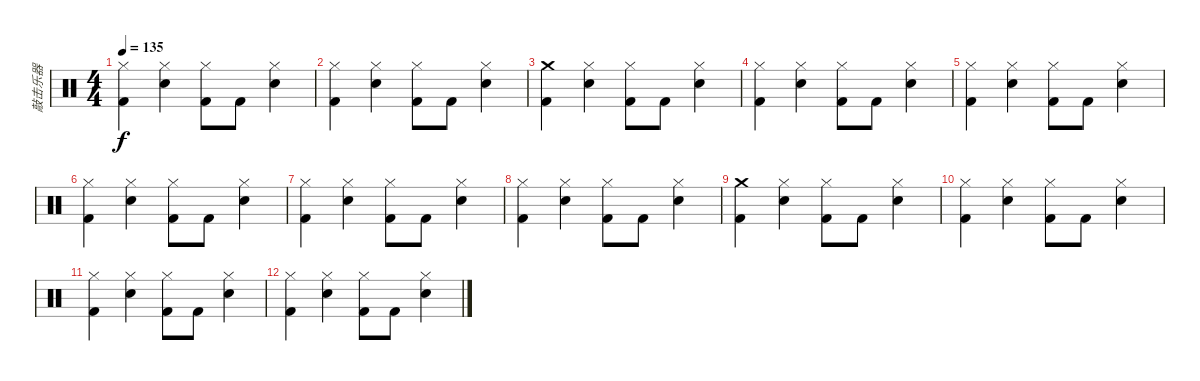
\track ("敲击乐器" "敲击乐器") {instrument percussion}
\staff {score}
\articulation defaults
\ts (4 4)
\tempo 135
\clef neutral
\ks c
("Hi-Hat (closed)" "Kick (hit) 2").4{dy f} ("Hi-Hat (closed)" "Snare (hit) 2").4 ("Hi-Hat (closed)" "Kick (hit) 2").8 "Kick (hit) 2".8 ("Hi-Hat (closed)" "Snare (hit) 2").4 |
("Hi-Hat (closed)" "Kick (hit) 2").4 ("Hi-Hat (closed)" "Snare (hit) 2").4 ("Hi-Hat (closed)" "Kick (hit) 2").8 "Kick (hit) 2".8 ("Hi-Hat (closed)" "Snare (hit) 2").4 |
("Crash medium (hit)" "Kick (hit) 2").4 ("Hi-Hat (closed)" "Snare (hit) 2").4 ("Hi-Hat (closed)" "Kick (hit) 2").8 "Kick (hit) 2".8 ("Hi-Hat (closed)" "Snare (hit) 2").4 |
("Hi-Hat (closed)" "Kick (hit) 2").4 ("Hi-Hat (closed)" "Snare (hit) 2").4 ("Hi-Hat (closed)" "Kick (hit) 2").8 "Kick (hit) 2".8 ("Hi-Hat (closed)" "Snare (hit) 2").4 |
("Hi-Hat (closed)" "Kick (hit) 2").4 ("Hi-Hat (closed)" "Snare (hit) 2").4 ("Hi-Hat (closed)" "Kick (hit) 2").8 "Kick (hit) 2".8 ("Hi-Hat (closed)" "Snare (hit) 2").4 |
("Hi-Hat (closed)" "Kick (hit) 2").4 ("Hi-Hat (closed)" "Snare (hit) 2").4 ("Hi-Hat (closed)" "Kick (hit) 2").8 "Kick (hit) 2".8 ("Hi-Hat (closed)" "Snare (hit) 2").4 |
("Hi-Hat (closed)" "Kick (hit) 2").4 ("Hi-Hat (closed)" "Snare (hit) 2").4 ("Hi-Hat (closed)" "Kick (hit) 2").8 "Kick (hit) 2".8 ("Hi-Hat (closed)" "Snare (hit) 2").4 |
("Hi-Hat (closed)" "Kick (hit) 2").4 ("Hi-Hat (closed)" "Snare (hit) 2").4 ("Hi-Hat (closed)" "Kick (hit) 2").8 "Kick (hit) 2".8 ("Hi-Hat (closed)" "Snare (hit) 2").4 |
("Crash medium (hit)" "Kick (hit) 2").4 ("Hi-Hat (closed)" "Snare (hit) 2").4 ("Hi-Hat (closed)" "Kick (hit) 2").8 "Kick (hit) 2".8 ("Hi-Hat (closed)" "Snare (hit) 2").4 |
("Hi-Hat (closed)" "Kick (hit) 2").4 ("Hi-Hat (closed)" "Snare (hit) 2").4 ("Hi-Hat (closed)" "Kick (hit) 2").8 "Kick (hit) 2".8 ("Hi-Hat (closed)" "Snare (hit) 2").4 |
("Hi-Hat (closed)" "Kick (hit) 2").4 ("Hi-Hat (closed)" "Snare (hit) 2").4 ("Hi-Hat (closed)" "Kick (hit) 2").8 "Kick (hit) 2".8 ("Hi-Hat (closed)" "Snare (hit) 2").4 |
("Hi-Hat (closed)" "Kick (hit) 2").4 ("Hi-Hat (closed)" "Snare (hit) 2").4 ("Hi-Hat (closed)" "Kick (hit) 2").8 "Kick (hit) 2".8 ("Hi-Hat (closed)" "Snare (hit) 2").4
